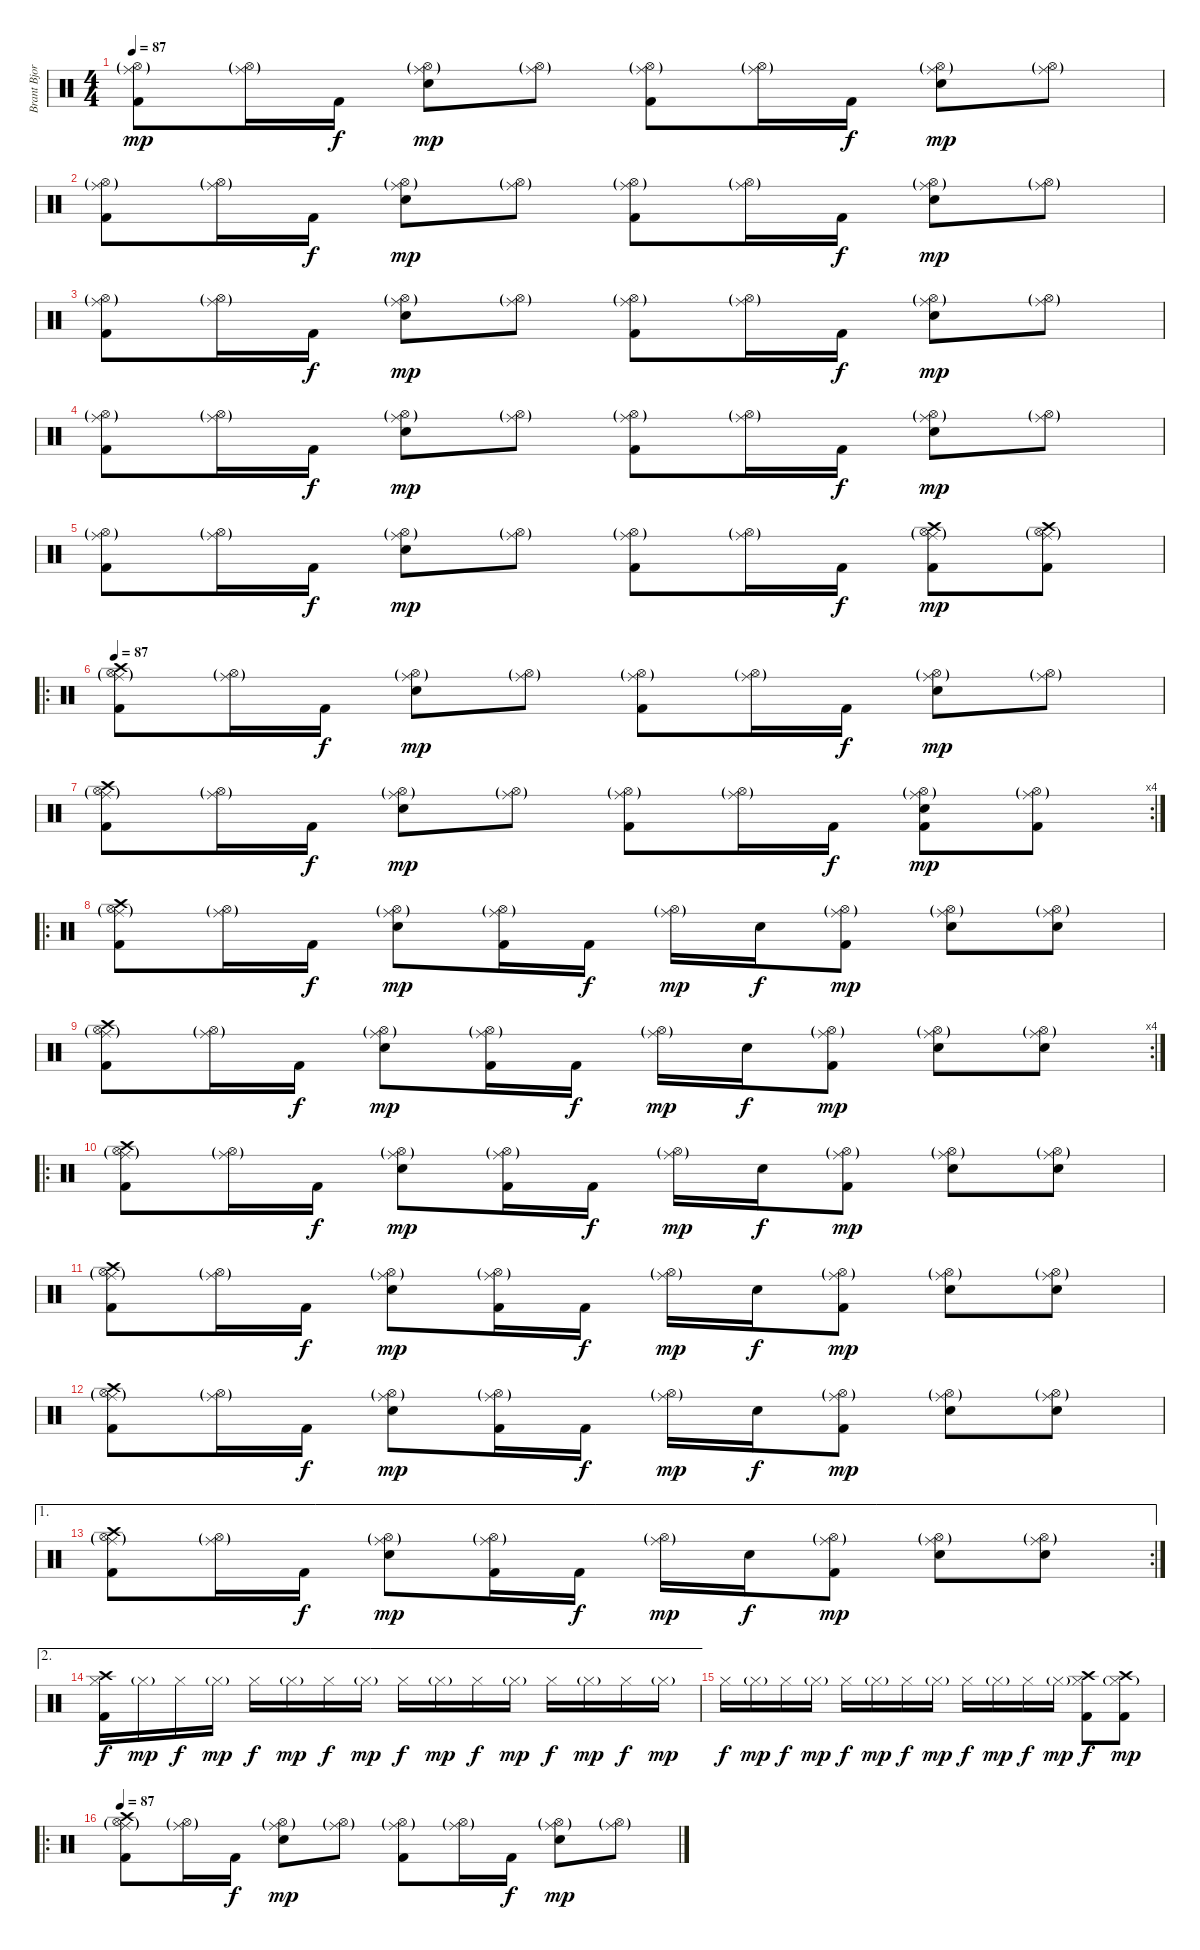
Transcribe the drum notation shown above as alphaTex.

\track ("Brant Bjork" "Brant Bjor") {instrument percussion}
\staff {score}
\articulation defaults
\ts (4 4)
\tempo 87
\clef neutral
\ks c
("Hi-Hat (open)"{g} "Ride (middle)"{g} "Kick (hit) 2").8{dy mp} ("Hi-Hat (open)"{g} "Ride (middle)"{g}).16 "Kick (hit) 2".16{dy f} ("Hi-Hat (open)"{g} "Ride (middle)"{g} "Electric Snare (hit)").8{dy mp} ("Hi-Hat (open)"{g} "Ride (middle)"{g}).8 ("Hi-Hat (open)"{g} "Ride (middle)"{g} "Kick (hit) 2").8 ("Hi-Hat (open)"{g} "Ride (middle)"{g}).16 "Kick (hit) 2".16{dy f} ("Hi-Hat (open)"{g} "Ride (middle)"{g} "Electric Snare (hit)").8{dy mp} ("Hi-Hat (open)"{g} "Ride (middle)"{g}).8 |
("Hi-Hat (open)"{g} "Ride (middle)"{g} "Kick (hit) 2").8 ("Hi-Hat (open)"{g} "Ride (middle)"{g}).16 "Kick (hit) 2".16{dy f} ("Hi-Hat (open)"{g} "Ride (middle)"{g} "Electric Snare (hit)").8{dy mp} ("Hi-Hat (open)"{g} "Ride (middle)"{g}).8 ("Hi-Hat (open)"{g} "Ride (middle)"{g} "Kick (hit) 2").8 ("Hi-Hat (open)"{g} "Ride (middle)"{g}).16 "Kick (hit) 2".16{dy f} ("Hi-Hat (open)"{g} "Ride (middle)"{g} "Electric Snare (hit)").8{dy mp} ("Hi-Hat (open)"{g} "Ride (middle)"{g}).8 |
("Hi-Hat (open)"{g} "Ride (middle)"{g} "Kick (hit) 2").8 ("Hi-Hat (open)"{g} "Ride (middle)"{g}).16 "Kick (hit) 2".16{dy f} ("Hi-Hat (open)"{g} "Ride (middle)"{g} "Electric Snare (hit)").8{dy mp} ("Hi-Hat (open)"{g} "Ride (middle)"{g}).8 ("Hi-Hat (open)"{g} "Ride (middle)"{g} "Kick (hit) 2").8 ("Hi-Hat (open)"{g} "Ride (middle)"{g}).16 "Kick (hit) 2".16{dy f} ("Hi-Hat (open)"{g} "Ride (middle)"{g} "Electric Snare (hit)").8{dy mp} ("Hi-Hat (open)"{g} "Ride (middle)"{g}).8 |
("Hi-Hat (open)"{g} "Ride (middle)"{g} "Kick (hit) 2").8 ("Hi-Hat (open)"{g} "Ride (middle)"{g}).16 "Kick (hit) 2".16{dy f} ("Hi-Hat (open)"{g} "Ride (middle)"{g} "Electric Snare (hit)").8{dy mp} ("Hi-Hat (open)"{g} "Ride (middle)"{g}).8 ("Hi-Hat (open)"{g} "Ride (middle)"{g} "Kick (hit) 2").8 ("Hi-Hat (open)"{g} "Ride (middle)"{g}).16 "Kick (hit) 2".16{dy f} ("Hi-Hat (open)"{g} "Ride (middle)"{g} "Electric Snare (hit)").8{dy mp} ("Hi-Hat (open)"{g} "Ride (middle)"{g}).8 |
("Hi-Hat (open)"{g} "Ride (middle)"{g} "Kick (hit) 2").8 ("Hi-Hat (open)"{g} "Ride (middle)"{g}).16 "Kick (hit) 2".16{dy f} ("Hi-Hat (open)"{g} "Ride (middle)"{g} "Electric Snare (hit)").8{dy mp} ("Hi-Hat (open)"{g} "Ride (middle)"{g}).8 ("Hi-Hat (open)"{g} "Ride (middle)"{g} "Kick (hit) 2").8 ("Hi-Hat (open)"{g} "Ride (middle)"{g}).16 "Kick (hit) 2".16{dy f} ("Hi-Hat (open)"{g} "Ride (middle)"{g} "Crash high (hit)" "Kick (hit) 2").8{dy mp} ("Hi-Hat (open)"{g} "Ride (middle)"{g} "Crash high (hit)" "Kick (hit) 2").8 |
\ro
\tempo 87
("Crash high (hit)" "Hi-Hat (open)"{g} "Ride (middle)"{g} "Kick (hit) 2").8 ("Hi-Hat (open)"{g} "Ride (middle)"{g}).16 "Kick (hit) 2".16{dy f} ("Hi-Hat (open)"{g} "Ride (middle)"{g} "Electric Snare (hit)").8{dy mp} ("Hi-Hat (open)"{g} "Ride (middle)"{g}).8 ("Hi-Hat (open)"{g} "Ride (middle)"{g} "Kick (hit) 2").8 ("Hi-Hat (open)"{g} "Ride (middle)"{g}).16 "Kick (hit) 2".16{dy f} ("Hi-Hat (open)"{g} "Ride (middle)"{g} "Electric Snare (hit)").8{dy mp} ("Hi-Hat (open)"{g} "Ride (middle)"{g}).8 |
\rc 4
("Crash high (hit)" "Hi-Hat (open)"{g} "Ride (middle)"{g} "Kick (hit) 2").8 ("Hi-Hat (open)"{g} "Ride (middle)"{g}).16 "Kick (hit) 2".16{dy f} ("Hi-Hat (open)"{g} "Ride (middle)"{g} "Electric Snare (hit)").8{dy mp} ("Hi-Hat (open)"{g} "Ride (middle)"{g}).8 ("Hi-Hat (open)"{g} "Ride (middle)"{g} "Kick (hit) 2").8 ("Hi-Hat (open)"{g} "Ride (middle)"{g}).16 "Kick (hit) 2".16{dy f} ("Hi-Hat (open)"{g} "Ride (middle)"{g} "Electric Snare (hit)" "Kick (hit) 2").8{dy mp} ("Hi-Hat (open)"{g} "Ride (middle)"{g} "Kick (hit) 2").8 |
\ro
("Crash high (hit)" "Hi-Hat (open)"{g} "Ride (middle)"{g} "Kick (hit) 2").8 ("Hi-Hat (open)"{g} "Ride (middle)"{g}).16 "Kick (hit) 2".16{dy f} ("Hi-Hat (open)"{g} "Ride (middle)"{g} "Electric Snare (hit)").8{dy mp} ("Hi-Hat (open)"{g} "Ride (middle)"{g} "Kick (hit) 2").16 "Kick (hit) 2".16{dy f} ("Hi-Hat (open)"{g} "Ride (middle)"{g}).16{dy mp} "Electric Snare (hit)".16{dy f} ("Hi-Hat (open)"{g} "Ride (middle)"{g} "Kick (hit) 2").8{dy mp} ("Hi-Hat (open)"{g} "Ride (middle)"{g} "Electric Snare (hit)").8 ("Hi-Hat (open)"{g} "Ride (middle)"{g} "Electric Snare (hit)").8 |
\rc 4
("Crash high (hit)" "Hi-Hat (open)"{g} "Ride (middle)"{g} "Kick (hit) 2").8 ("Hi-Hat (open)"{g} "Ride (middle)"{g}).16 "Kick (hit) 2".16{dy f} ("Hi-Hat (open)"{g} "Ride (middle)"{g} "Electric Snare (hit)").8{dy mp} ("Hi-Hat (open)"{g} "Ride (middle)"{g} "Kick (hit) 2").16 "Kick (hit) 2".16{dy f} ("Hi-Hat (open)"{g} "Ride (middle)"{g}).16{dy mp} "Electric Snare (hit)".16{dy f} ("Hi-Hat (open)"{g} "Ride (middle)"{g} "Kick (hit) 2").8{dy mp} ("Hi-Hat (open)"{g} "Ride (middle)"{g} "Electric Snare (hit)").8 ("Hi-Hat (open)"{g} "Ride (middle)"{g} "Electric Snare (hit)").8 |
\ro
("Crash high (hit)" "Hi-Hat (open)"{g} "Ride (middle)"{g} "Kick (hit) 2").8 ("Hi-Hat (open)"{g} "Ride (middle)"{g}).16 "Kick (hit) 2".16{dy f} ("Hi-Hat (open)"{g} "Ride (middle)"{g} "Electric Snare (hit)").8{dy mp} ("Hi-Hat (open)"{g} "Ride (middle)"{g} "Kick (hit) 2").16 "Kick (hit) 2".16{dy f} ("Hi-Hat (open)"{g} "Ride (middle)"{g}).16{dy mp} "Electric Snare (hit)".16{dy f} ("Hi-Hat (open)"{g} "Ride (middle)"{g} "Kick (hit) 2").8{dy mp} ("Hi-Hat (open)"{g} "Ride (middle)"{g} "Electric Snare (hit)").8 ("Hi-Hat (open)"{g} "Ride (middle)"{g} "Electric Snare (hit)").8 |
("Crash high (hit)" "Hi-Hat (open)"{g} "Ride (middle)"{g} "Kick (hit) 2").8 ("Hi-Hat (open)"{g} "Ride (middle)"{g}).16 "Kick (hit) 2".16{dy f} ("Hi-Hat (open)"{g} "Ride (middle)"{g} "Electric Snare (hit)").8{dy mp} ("Hi-Hat (open)"{g} "Ride (middle)"{g} "Kick (hit) 2").16 "Kick (hit) 2".16{dy f} ("Hi-Hat (open)"{g} "Ride (middle)"{g}).16{dy mp} "Electric Snare (hit)".16{dy f} ("Hi-Hat (open)"{g} "Ride (middle)"{g} "Kick (hit) 2").8{dy mp} ("Hi-Hat (open)"{g} "Ride (middle)"{g} "Electric Snare (hit)").8 ("Hi-Hat (open)"{g} "Ride (middle)"{g} "Electric Snare (hit)").8 |
("Crash high (hit)" "Hi-Hat (open)"{g} "Ride (middle)"{g} "Kick (hit) 2").8 ("Hi-Hat (open)"{g} "Ride (middle)"{g}).16 "Kick (hit) 2".16{dy f} ("Hi-Hat (open)"{g} "Ride (middle)"{g} "Electric Snare (hit)").8{dy mp} ("Hi-Hat (open)"{g} "Ride (middle)"{g} "Kick (hit) 2").16 "Kick (hit) 2".16{dy f} ("Hi-Hat (open)"{g} "Ride (middle)"{g}).16{dy mp} "Electric Snare (hit)".16{dy f} ("Hi-Hat (open)"{g} "Ride (middle)"{g} "Kick (hit) 2").8{dy mp} ("Hi-Hat (open)"{g} "Ride (middle)"{g} "Electric Snare (hit)").8 ("Hi-Hat (open)"{g} "Ride (middle)"{g} "Electric Snare (hit)").8 |
\ae 1
\rc 2
("Crash high (hit)" "Hi-Hat (open)"{g} "Ride (middle)"{g} "Kick (hit) 2").8 ("Hi-Hat (open)"{g} "Ride (middle)"{g}).16 "Kick (hit) 2".16{dy f} ("Hi-Hat (open)"{g} "Ride (middle)"{g} "Electric Snare (hit)").8{dy mp} ("Hi-Hat (open)"{g} "Ride (middle)"{g} "Kick (hit) 2").16 "Kick (hit) 2".16{dy f} ("Hi-Hat (open)"{g} "Ride (middle)"{g}).16{dy mp} "Electric Snare (hit)".16{dy f} ("Hi-Hat (open)"{g} "Ride (middle)"{g} "Kick (hit) 2").8{dy mp} ("Hi-Hat (open)"{g} "Ride (middle)"{g} "Electric Snare (hit)").8 ("Hi-Hat (open)"{g} "Ride (middle)"{g} "Electric Snare (hit)").8 |
\ae 2
("Crash high (hit)" "Kick (hit) 2" "Hi-Hat (closed)").16{dy f} "Hi-Hat (closed)"{g}.16{dy mp} "Hi-Hat (closed)".16{dy f} "Hi-Hat (closed)"{g}.16{dy mp} "Hi-Hat (closed)".16{dy f} "Hi-Hat (closed)"{g}.16{dy mp} "Hi-Hat (closed)".16{dy f} "Hi-Hat (closed)"{g}.16{dy mp} "Hi-Hat (closed)".16{dy f} "Hi-Hat (closed)"{g}.16{dy mp} "Hi-Hat (closed)".16{dy f} "Hi-Hat (closed)"{g}.16{dy mp} "Hi-Hat (closed)".16{dy f} "Hi-Hat (closed)"{g}.16{dy mp} "Hi-Hat (closed)".16{dy f} "Hi-Hat (closed)"{g}.16{dy mp} |
"Hi-Hat (closed)".16{dy f} "Hi-Hat (closed)"{g}.16{dy mp} "Hi-Hat (closed)".16{dy f} "Hi-Hat (closed)"{g}.16{dy mp} "Hi-Hat (closed)".16{dy f} "Hi-Hat (closed)"{g}.16{dy mp} "Hi-Hat (closed)".16{dy f} "Hi-Hat (closed)"{g}.16{dy mp} "Hi-Hat (closed)".16{dy f} "Hi-Hat (closed)"{g}.16{dy mp} "Hi-Hat (closed)".16{dy f} "Hi-Hat (closed)"{g}.16{dy mp} ("Crash high (hit)" "Kick (hit) 2" "Hi-Hat (closed)").8{dy f} ("Crash high (hit)" "Kick (hit) 2" "Hi-Hat (closed)"{g}).8{dy mp} |
\ro
\tempo 87
("Crash high (hit)" "Hi-Hat (open)"{g} "Ride (middle)"{g} "Kick (hit) 2").8 ("Hi-Hat (open)"{g} "Ride (middle)"{g}).16 "Kick (hit) 2".16{dy f} ("Hi-Hat (open)"{g} "Ride (middle)"{g} "Electric Snare (hit)").8{dy mp} ("Hi-Hat (open)"{g} "Ride (middle)"{g}).8 ("Hi-Hat (open)"{g} "Ride (middle)"{g} "Kick (hit) 2").8 ("Hi-Hat (open)"{g} "Ride (middle)"{g}).16 "Kick (hit) 2".16{dy f} ("Hi-Hat (open)"{g} "Ride (middle)"{g} "Electric Snare (hit)").8{dy mp} ("Hi-Hat (open)"{g} "Ride (middle)"{g}).8
